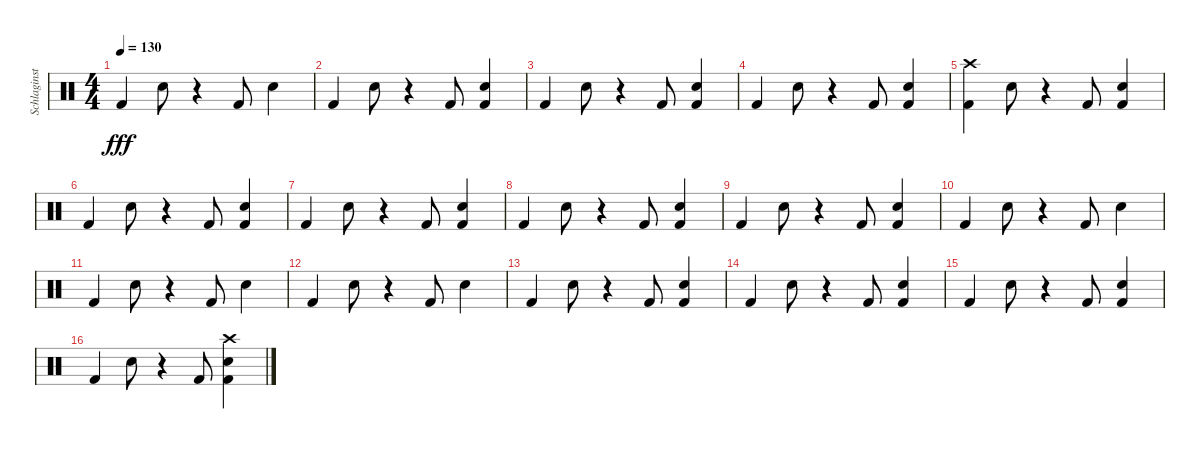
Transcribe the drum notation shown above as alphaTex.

\track ("Schlaginstrumente - Auswahl" "Schlaginst") {instrument percussion}
\staff {score}
\articulation defaults
\ts (4 4)
\tempo 130
\clef neutral
\ks c "Kick (hit) 2".4{dy fff} "Snare (hit) 2".8
r.4 "Kick (hit) 2".8 "Snare (hit) 2".4 |
"Kick (hit) 2".4 "Snare (hit) 2".8 r.4 "Kick (hit) 2".8 ("Snare (hit) 2" "Kick (hit) 2").4 |
"Kick (hit) 2".4 "Snare (hit) 2".8 r.4 "Kick (hit) 2".8 ("Snare (hit) 2" "Kick (hit) 2").4 |
"Kick (hit) 2".4 "Snare (hit) 2".8 r.4 "Kick (hit) 2".8 ("Snare (hit) 2" "Kick (hit) 2").4 |
("Crash high (hit)" "Kick (hit) 2").4 "Snare (hit) 2".8 r.4 "Kick (hit) 2".8 ("Snare (hit) 2" "Kick (hit) 2").4 |
"Kick (hit) 2".4 "Snare (hit) 2".8 r.4 "Kick (hit) 2".8 ("Snare (hit) 2" "Kick (hit) 2").4 |
"Kick (hit) 2".4 "Snare (hit) 2".8 r.4 "Kick (hit) 2".8 ("Snare (hit) 2" "Kick (hit) 2").4 |
"Kick (hit) 2".4 "Snare (hit) 2".8 r.4 "Kick (hit) 2".8 ("Snare (hit) 2" "Kick (hit) 2").4 |
"Kick (hit) 2".4 "Snare (hit) 2".8 r.4 "Kick (hit) 2".8 ("Snare (hit) 2" "Kick (hit) 2").4 |
"Kick (hit) 2".4 "Snare (hit) 2".8 r.4 "Kick (hit) 2".8 "Snare (hit) 2".4 |
"Kick (hit) 2".4 "Snare (hit) 2".8 r.4 "Kick (hit) 2".8 "Snare (hit) 2".4 |
"Kick (hit) 2".4 "Snare (hit) 2".8 r.4 "Kick (hit) 2".8 "Snare (hit) 2".4 |
"Kick (hit) 2".4 "Snare (hit) 2".8 r.4 "Kick (hit) 2".8 ("Snare (hit) 2" "Kick (hit) 2").4 |
"Kick (hit) 2".4 "Snare (hit) 2".8 r.4 "Kick (hit) 2".8 ("Snare (hit) 2" "Kick (hit) 2").4 |
"Kick (hit) 2".4 "Snare (hit) 2".8 r.4 "Kick (hit) 2".8 ("Snare (hit) 2" "Kick (hit) 2").4 |
"Kick (hit) 2".4 "Snare (hit) 2".8 r.4 "Kick (hit) 2".8 ("Crash high (hit)" "Snare (hit) 2" "Kick (hit) 2").4
